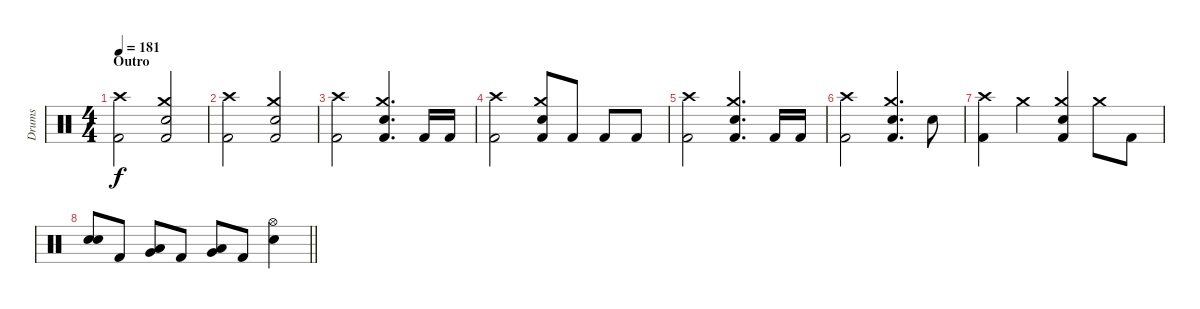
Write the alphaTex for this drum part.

\track ("Drums" "Drums") {instrument percussion}
\staff {score}
\articulation defaults
\ts (4 4)
\section ("" "Outro")
\tempo 181
\clef neutral
\ks c
("Crash high (hit)" "Kick (hit) 2").2{dy f} ("Crash medium (hit)" "Snare (hit) 2" "Kick (hit) 2").2 |
("Crash high (hit)" "Kick (hit) 2").2 ("Crash medium (hit)" "Snare (hit) 2" "Kick (hit) 2").2 |
("Crash high (hit)" "Kick (hit) 2").2 ("Crash medium (hit)" "Snare (hit) 2" "Kick (hit) 2").4{d} "Kick (hit) 2".16 "Kick (hit) 2".16 |
("Crash high (hit)" "Kick (hit) 2").2 ("Crash medium (hit)" "Snare (hit) 2" "Kick (hit) 2").8 "Kick (hit) 2".8 "Kick (hit) 2".8 "Kick (hit) 2".8 |
("Crash high (hit)" "Kick (hit) 2").2 ("Crash medium (hit)" "Snare (hit) 2" "Kick (hit) 2").4{d} "Kick (hit) 2".16 "Kick (hit) 2".16 |
("Crash high (hit)" "Kick (hit) 2").2 ("Crash medium (hit)" "Snare (hit) 2" "Kick (hit) 2").4{d} "Snare (hit) 2".8 |
("Crash high (hit)" "Kick (hit) 2").4 "Crash medium (hit)".4 ("Crash medium (hit)" "Snare (hit) 2" "Kick (hit) 2").4 "Crash medium (hit)".8 "Kick (hit) 2".8 |
\barLineRight lightlight
("Snare (hit) 2" "Snare (hit) 2").8 "Kick (hit) 2".8 ("Very Low Tom (hit)" "Low Tom (hit)").8 "Kick (hit) 2".8 ("Low Floor Tom (hit)" "Very Low Tom (hit)").8 "Kick (hit) 2".8 ("Hi-Hat (open)" "Snare (hit) 2").4
